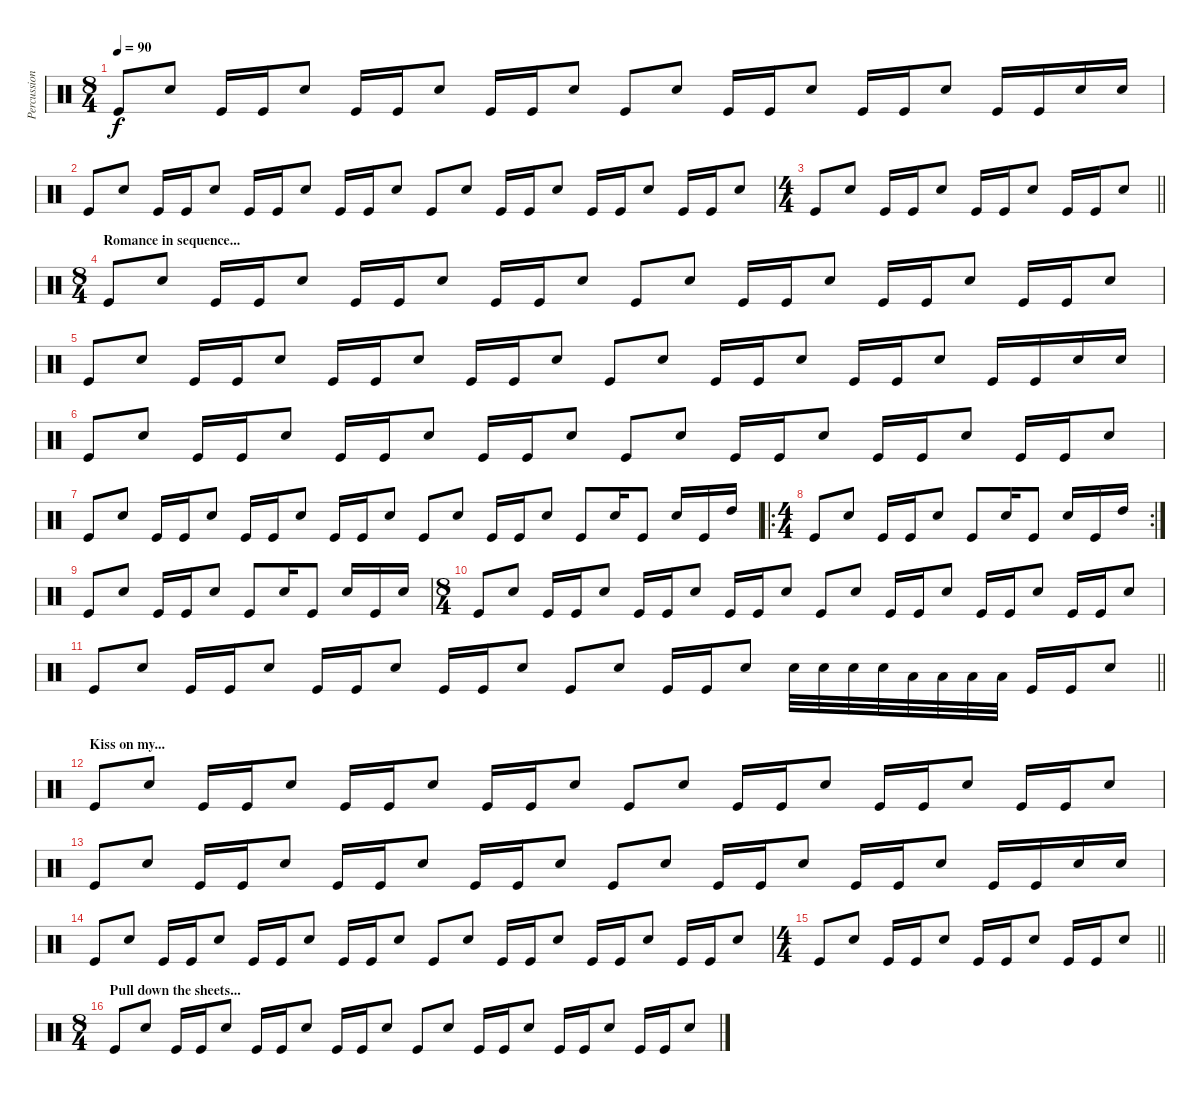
\track ("Percussion" "Percussion") {instrument percussion}
\staff {score}
\articulation defaults
\ts (8 4)
\tempo 90
\clef neutral
\ks c "Kick (hit)".8{dy f} "Snare (hit) 2".8 "Kick (hit)".16 "Kick (hit)".16 "Snare (hit) 2".8 "Kick (hit)".16 "Kick (hit)".16 "Snare (hit) 2".8 "Kick (hit)".16 "Kick (hit)".16 "Snare (hit) 2".8 "Kick (hit)".8 "Snare (hit) 2".8 "Kick (hit)".16 "Kick (hit)".16 "Snare (hit) 2".8 "Kick (hit)".16 "Kick (hit)".16 "Snare (hit) 2".8 "Kick (hit)".16 "Kick (hit)".16 "Snare (hit) 2".16 "Snare (hit) 2".16
|
"Kick (hit)".8 "Snare (hit) 2".8 "Kick (hit)".16 "Kick (hit)".16 "Snare (hit) 2".8 "Kick (hit)".16 "Kick (hit)".16 "Snare (hit) 2".8 "Kick (hit)".16 "Kick (hit)".16 "Snare (hit) 2".8 "Kick (hit)".8 "Snare (hit) 2".8 "Kick (hit)".16 "Kick (hit)".16 "Snare (hit) 2".8 "Kick (hit)".16 "Kick (hit)".16 "Snare (hit) 2".8 "Kick (hit)".16 "Kick (hit)".16 "Snare (hit) 2".8 |
\ts (4 4)
\barLineRight lightlight "Kick (hit)".8 "Snare (hit) 2".8 "Kick (hit)".16 "Kick (hit)".16 "Snare (hit) 2".8 "Kick (hit)".16 "Kick (hit)".16 "Snare (hit) 2".8 "Kick (hit)".16 "Kick (hit)".16 "Snare (hit) 2".8
|
\ts (8 4)
\section ("" "Romance in sequence...")
"Kick (hit)".8 "Snare (hit) 2".8 "Kick (hit)".16 "Kick (hit)".16 "Snare (hit) 2".8 "Kick (hit)".16 "Kick (hit)".16 "Snare (hit) 2".8 "Kick (hit)".16 "Kick (hit)".16 "Snare (hit) 2".8 "Kick (hit)".8 "Snare (hit) 2".8 "Kick (hit)".16 "Kick (hit)".16 "Snare (hit) 2".8 "Kick (hit)".16 "Kick (hit)".16 "Snare (hit) 2".8 "Kick (hit)".16 "Kick (hit)".16 "Snare (hit) 2".8 |
"Kick (hit)".8 "Snare (hit) 2".8 "Kick (hit)".16 "Kick (hit)".16 "Snare (hit) 2".8 "Kick (hit)".16 "Kick (hit)".16 "Snare (hit) 2".8 "Kick (hit)".16 "Kick (hit)".16 "Snare (hit) 2".8 "Kick (hit)".8 "Snare (hit) 2".8 "Kick (hit)".16 "Kick (hit)".16 "Snare (hit) 2".8 "Kick (hit)".16 "Kick (hit)".16 "Snare (hit) 2".8 "Kick (hit)".16 "Kick (hit)".16 "Snare (hit) 2".16 "Snare (hit) 2".16 |
"Kick (hit)".8 "Snare (hit) 2".8 "Kick (hit)".16 "Kick (hit)".16 "Snare (hit) 2".8 "Kick (hit)".16 "Kick (hit)".16 "Snare (hit) 2".8 "Kick (hit)".16 "Kick (hit)".16 "Snare (hit) 2".8 "Kick (hit)".8 "Snare (hit) 2".8 "Kick (hit)".16 "Kick (hit)".16 "Snare (hit) 2".8 "Kick (hit)".16 "Kick (hit)".16 "Snare (hit) 2".8 "Kick (hit)".16 "Kick (hit)".16 "Snare (hit) 2".8 |
"Kick (hit)".8 "Snare (hit) 2".8 "Kick (hit)".16 "Kick (hit)".16 "Snare (hit) 2".8 "Kick (hit)".16 "Kick (hit)".16 "Snare (hit) 2".8 "Kick (hit)".16 "Kick (hit)".16 "Snare (hit) 2".8 "Kick (hit)".8 "Snare (hit) 2".8 "Kick (hit)".16 "Kick (hit)".16 "Snare (hit) 2".8 "Kick (hit)".8 "Snare (hit) 2".16 "Kick (hit)".8 "Snare (hit) 2".16 "Kick (hit)".16 "High Tom (hit)".16 |
\ro
\rc 2
\ts (4 4)
"Kick (hit)".8 "Snare (hit) 2".8 "Kick (hit)".16 "Kick (hit)".16 "Snare (hit) 2".8 "Kick (hit)".8 "Snare (hit) 2".16 "Kick (hit)".8 "Snare (hit) 2".16 "Kick (hit)".16 "High Tom (hit)".16 |
"Kick (hit)".8 "Snare (hit) 2".8 "Kick (hit)".16 "Kick (hit)".16 "Snare (hit) 2".8 "Kick (hit)".8 "Snare (hit) 2".16 "Kick (hit)".8 "Snare (hit) 2".16 "Kick (hit)".16 "Snare (hit) 2".16 |
\ts (8 4)
"Kick (hit)".8 "Snare (hit) 2".8 "Kick (hit)".16 "Kick (hit)".16 "Snare (hit) 2".8 "Kick (hit)".16 "Kick (hit)".16 "Snare (hit) 2".8 "Kick (hit)".16 "Kick (hit)".16 "Snare (hit) 2".8 "Kick (hit)".8 "Snare (hit) 2".8 "Kick (hit)".16 "Kick (hit)".16 "Snare (hit) 2".8 "Kick (hit)".16 "Kick (hit)".16 "Snare (hit) 2".8 "Kick (hit)".16 "Kick (hit)".16 "Snare (hit) 2".8 |
\barLineRight lightlight "Kick (hit)".8 "Snare (hit) 2".8 "Kick (hit)".16 "Kick (hit)".16 "Snare (hit) 2".8 "Kick (hit)".16 "Kick (hit)".16 "Snare (hit) 2".8 "Kick (hit)".16 "Kick (hit)".16 "Snare (hit) 2".8 "Kick (hit)".8 "Snare (hit) 2".8 "Kick (hit)".16 "Kick (hit)".16 "Snare (hit) 2".8 "Snare (hit) 2".32 "Snare (hit) 2".32 "Snare (hit) 2".32 "Snare (hit) 2".32 "Low Floor Tom (hit)".32 "Low Floor Tom (hit)".32 "Low Floor Tom (hit)".32 "Low Floor Tom (hit)".32 "Kick (hit)".16 "Kick (hit)".16 "Snare (hit) 2".8
|
\section ("" "Kiss on my...")
"Kick (hit)".8 "Snare (hit) 2".8 "Kick (hit)".16 "Kick (hit)".16 "Snare (hit) 2".8 "Kick (hit)".16 "Kick (hit)".16 "Snare (hit) 2".8 "Kick (hit)".16 "Kick (hit)".16 "Snare (hit) 2".8 "Kick (hit)".8 "Snare (hit) 2".8 "Kick (hit)".16 "Kick (hit)".16 "Snare (hit) 2".8 "Kick (hit)".16 "Kick (hit)".16 "Snare (hit) 2".8 "Kick (hit)".16 "Kick (hit)".16 "Snare (hit) 2".8 |
"Kick (hit)".8 "Snare (hit) 2".8 "Kick (hit)".16 "Kick (hit)".16 "Snare (hit) 2".8 "Kick (hit)".16 "Kick (hit)".16 "Snare (hit) 2".8 "Kick (hit)".16 "Kick (hit)".16 "Snare (hit) 2".8 "Kick (hit)".8 "Snare (hit) 2".8 "Kick (hit)".16 "Kick (hit)".16 "Snare (hit) 2".8 "Kick (hit)".16 "Kick (hit)".16 "Snare (hit) 2".8 "Kick (hit)".16 "Kick (hit)".16 "Snare (hit) 2".16 "Snare (hit) 2".16 |
"Kick (hit)".8 "Snare (hit) 2".8 "Kick (hit)".16 "Kick (hit)".16 "Snare (hit) 2".8 "Kick (hit)".16 "Kick (hit)".16 "Snare (hit) 2".8 "Kick (hit)".16 "Kick (hit)".16 "Snare (hit) 2".8 "Kick (hit)".8 "Snare (hit) 2".8 "Kick (hit)".16 "Kick (hit)".16 "Snare (hit) 2".8 "Kick (hit)".16 "Kick (hit)".16 "Snare (hit) 2".8 "Kick (hit)".16 "Kick (hit)".16 "Snare (hit) 2".8 |
\ts (4 4)
\barLineRight lightlight "Kick (hit)".8 "Snare (hit) 2".8 "Kick (hit)".16 "Kick (hit)".16 "Snare (hit) 2".8 "Kick (hit)".16 "Kick (hit)".16 "Snare (hit) 2".8 "Kick (hit)".16 "Kick (hit)".16 "Snare (hit) 2".8
|
\ts (8 4)
\section ("" "Pull down the sheets...")
"Kick (hit)".8 "Snare (hit) 2".8 "Kick (hit)".16 "Kick (hit)".16 "Snare (hit) 2".8 "Kick (hit)".16 "Kick (hit)".16 "Snare (hit) 2".8 "Kick (hit)".16 "Kick (hit)".16 "Snare (hit) 2".8 "Kick (hit)".8 "Snare (hit) 2".8 "Kick (hit)".16 "Kick (hit)".16 "Snare (hit) 2".8 "Kick (hit)".16 "Kick (hit)".16 "Snare (hit) 2".8 "Kick (hit)".16 "Kick (hit)".16 "Snare (hit) 2".8
